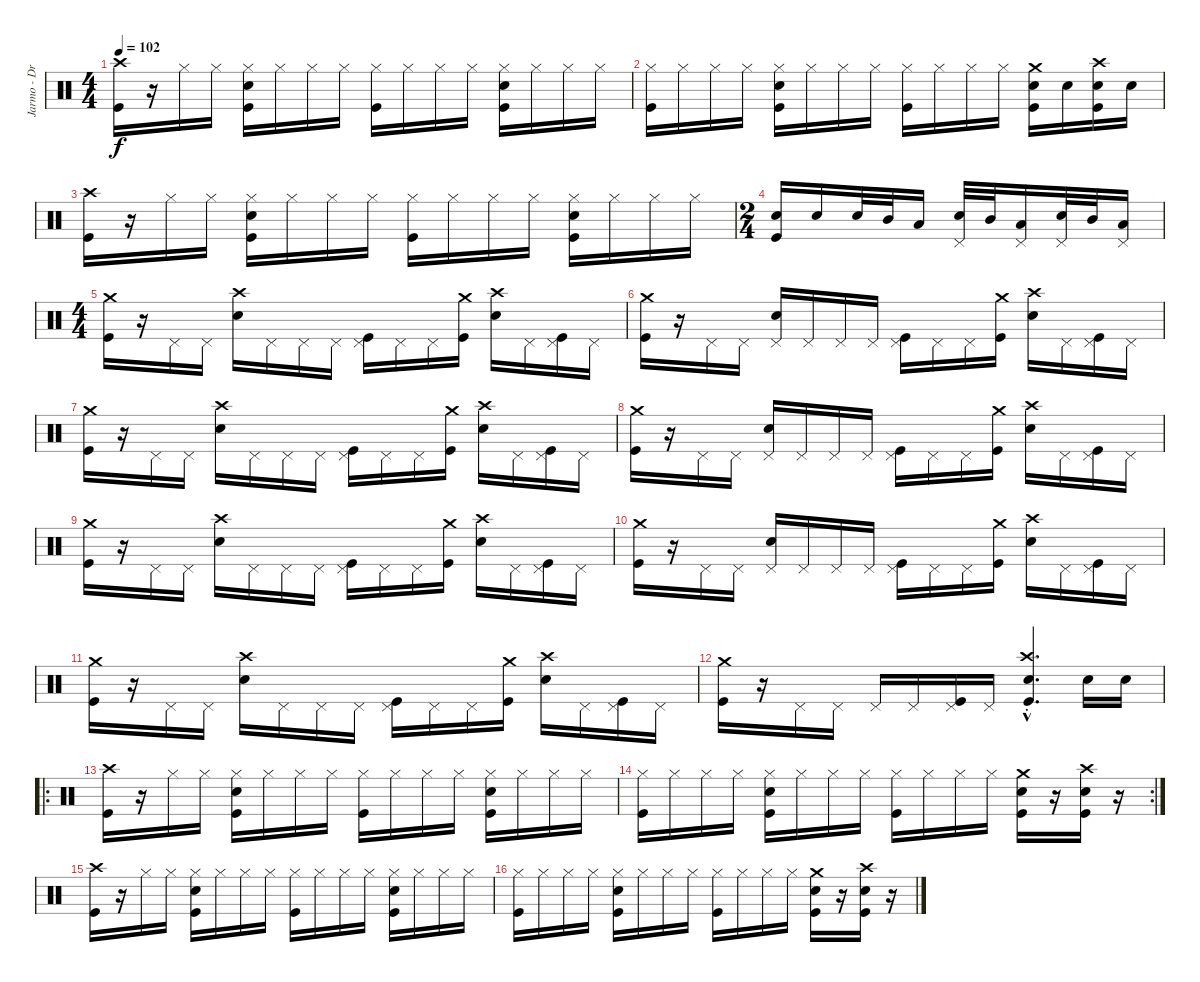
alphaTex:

\track ("Jarmo - Drums" "Jarmo - Dr") {instrument percussion}
\staff {score}
\articulation defaults
\ts (4 4)
\tempo 102
\clef neutral
\ks c
("Kick (hit)" "Crash high (hit)").16{dy f} r.16 "Hi-Hat (closed)".16 "Hi-Hat (closed)".16 ("Kick (hit)" "Electric Snare (hit)" "Hi-Hat (closed)").16 "Hi-Hat (closed)".16 "Hi-Hat (closed)".16 "Hi-Hat (closed)".16 ("Kick (hit)" "Hi-Hat (closed)").16 "Hi-Hat (closed)".16 "Hi-Hat (closed)".16 "Hi-Hat (closed)".16 ("Kick (hit)" "Electric Snare (hit)" "Hi-Hat (closed)").16 "Hi-Hat (closed)".16 "Hi-Hat (closed)".16 "Hi-Hat (closed)".16 |
("Kick (hit)" "Hi-Hat (closed)").16 "Hi-Hat (closed)".16 "Hi-Hat (closed)".16 "Hi-Hat (closed)".16 ("Kick (hit)" "Electric Snare (hit)" "Hi-Hat (closed)").16 "Hi-Hat (closed)".16 "Hi-Hat (closed)".16 "Hi-Hat (closed)".16 ("Kick (hit)" "Hi-Hat (closed)").16 "Hi-Hat (closed)".16 "Hi-Hat (closed)".16 "Hi-Hat (closed)".16 ("Kick (hit)" "Electric Snare (hit)" "Crash medium (hit)").16 "Electric Snare (hit)".16 ("Kick (hit)" "Electric Snare (hit)" "Crash high (hit)").16 "Electric Snare (hit)".16 |
("Kick (hit)" "Crash high (hit)").16 r.16 "Hi-Hat (closed)".16 "Hi-Hat (closed)".16 ("Kick (hit)" "Electric Snare (hit)" "Hi-Hat (closed)").16 "Hi-Hat (closed)".16 "Hi-Hat (closed)".16 "Hi-Hat (closed)".16 ("Kick (hit)" "Hi-Hat (closed)").16 "Hi-Hat (closed)".16 "Hi-Hat (closed)".16 "Hi-Hat (closed)".16 ("Kick (hit)" "Electric Snare (hit)" "Hi-Hat (closed)").16 "Hi-Hat (closed)".16 "Hi-Hat (closed)".16 "Hi-Hat (closed)".16 |
\ts (2 4)
("Kick (hit)" "Electric Snare (hit)").16 "Electric Snare (hit)".16 "Electric Snare (hit)".32 "Mid Tom (hit)".32 "Low Tom (hit)".16 ("Pedal Hi-Hat (hit)" "Electric Snare (hit)").32 "Mid Tom (hit)".32 ("Pedal Hi-Hat (hit)" "Low Tom (hit)").16 ("Pedal Hi-Hat (hit)" "Electric Snare (hit)").32 "Mid Tom (hit)".32 ("Pedal Hi-Hat (hit)" "Low Tom (hit)").16 |
\ts (4 4)
("Crash medium (hit)" "Kick (hit)").16 r.16 "Pedal Hi-Hat (hit)".16 "Pedal Hi-Hat (hit)".16 ("Crash high (hit)" "Electric Snare (hit)").16 "Pedal Hi-Hat (hit)".16 "Pedal Hi-Hat (hit)".16 "Pedal Hi-Hat (hit)".16 ("Pedal Hi-Hat (hit)" "Kick (hit)").16 "Pedal Hi-Hat (hit)".16 "Pedal Hi-Hat (hit)".16 ("Crash medium (hit)" "Kick (hit)").16 ("Crash high (hit)" "Electric Snare (hit)").16 "Pedal Hi-Hat (hit)".16 ("Pedal Hi-Hat (hit)" "Kick (hit)").16 "Pedal Hi-Hat (hit)".16 |
("Crash medium (hit)" "Kick (hit)").16 r.16 "Pedal Hi-Hat (hit)".16 "Pedal Hi-Hat (hit)".16 ("Pedal Hi-Hat (hit)" "Electric Snare (hit)").16 "Pedal Hi-Hat (hit)".16 "Pedal Hi-Hat (hit)".16 "Pedal Hi-Hat (hit)".16 ("Pedal Hi-Hat (hit)" "Kick (hit)").16 "Pedal Hi-Hat (hit)".16 "Pedal Hi-Hat (hit)".16 ("Crash medium (hit)" "Kick (hit)").16 ("Crash high (hit)" "Electric Snare (hit)").16 "Pedal Hi-Hat (hit)".16 ("Pedal Hi-Hat (hit)" "Kick (hit)").16 "Pedal Hi-Hat (hit)".16 |
("Crash medium (hit)" "Kick (hit)").16 r.16 "Pedal Hi-Hat (hit)".16 "Pedal Hi-Hat (hit)".16 ("Crash high (hit)" "Electric Snare (hit)").16 "Pedal Hi-Hat (hit)".16 "Pedal Hi-Hat (hit)".16 "Pedal Hi-Hat (hit)".16 ("Pedal Hi-Hat (hit)" "Kick (hit)").16 "Pedal Hi-Hat (hit)".16 "Pedal Hi-Hat (hit)".16 ("Crash medium (hit)" "Kick (hit)").16 ("Crash high (hit)" "Electric Snare (hit)").16 "Pedal Hi-Hat (hit)".16 ("Pedal Hi-Hat (hit)" "Kick (hit)").16 "Pedal Hi-Hat (hit)".16 |
("Crash medium (hit)" "Kick (hit)").16 r.16 "Pedal Hi-Hat (hit)".16 "Pedal Hi-Hat (hit)".16 ("Pedal Hi-Hat (hit)" "Electric Snare (hit)").16 "Pedal Hi-Hat (hit)".16 "Pedal Hi-Hat (hit)".16 "Pedal Hi-Hat (hit)".16 ("Pedal Hi-Hat (hit)" "Kick (hit)").16 "Pedal Hi-Hat (hit)".16 "Pedal Hi-Hat (hit)".16 ("Crash medium (hit)" "Kick (hit)").16 ("Crash high (hit)" "Electric Snare (hit)").16 "Pedal Hi-Hat (hit)".16 ("Pedal Hi-Hat (hit)" "Kick (hit)").16 "Pedal Hi-Hat (hit)".16 |
("Crash medium (hit)" "Kick (hit)").16 r.16 "Pedal Hi-Hat (hit)".16 "Pedal Hi-Hat (hit)".16 ("Crash high (hit)" "Electric Snare (hit)").16 "Pedal Hi-Hat (hit)".16 "Pedal Hi-Hat (hit)".16 "Pedal Hi-Hat (hit)".16 ("Pedal Hi-Hat (hit)" "Kick (hit)").16 "Pedal Hi-Hat (hit)".16 "Pedal Hi-Hat (hit)".16 ("Crash medium (hit)" "Kick (hit)").16 ("Crash high (hit)" "Electric Snare (hit)").16 "Pedal Hi-Hat (hit)".16 ("Pedal Hi-Hat (hit)" "Kick (hit)").16 "Pedal Hi-Hat (hit)".16 |
("Crash medium (hit)" "Kick (hit)").16 r.16 "Pedal Hi-Hat (hit)".16 "Pedal Hi-Hat (hit)".16 ("Pedal Hi-Hat (hit)" "Electric Snare (hit)").16 "Pedal Hi-Hat (hit)".16 "Pedal Hi-Hat (hit)".16 "Pedal Hi-Hat (hit)".16 ("Pedal Hi-Hat (hit)" "Kick (hit)").16 "Pedal Hi-Hat (hit)".16 "Pedal Hi-Hat (hit)".16 ("Crash medium (hit)" "Kick (hit)").16 ("Crash high (hit)" "Electric Snare (hit)").16 "Pedal Hi-Hat (hit)".16 ("Pedal Hi-Hat (hit)" "Kick (hit)").16 "Pedal Hi-Hat (hit)".16 |
("Crash medium (hit)" "Kick (hit)").16 r.16 "Pedal Hi-Hat (hit)".16 "Pedal Hi-Hat (hit)".16 ("Crash high (hit)" "Electric Snare (hit)").16 "Pedal Hi-Hat (hit)".16 "Pedal Hi-Hat (hit)".16 "Pedal Hi-Hat (hit)".16 ("Pedal Hi-Hat (hit)" "Kick (hit)").16 "Pedal Hi-Hat (hit)".16 "Pedal Hi-Hat (hit)".16 ("Crash medium (hit)" "Kick (hit)").16 ("Crash high (hit)" "Electric Snare (hit)").16 "Pedal Hi-Hat (hit)".16 ("Pedal Hi-Hat (hit)" "Kick (hit)").16 "Pedal Hi-Hat (hit)".16 |
("Crash medium (hit)" "Kick (hit)").16 r.16 "Pedal Hi-Hat (hit)".16 "Pedal Hi-Hat (hit)".16 "Pedal Hi-Hat (hit)".16 "Pedal Hi-Hat (hit)".16 ("Pedal Hi-Hat (hit)" "Kick (hit)").16 "Pedal Hi-Hat (hit)".16 ("Crash high (hit)"{hac st} "Electric Snare (hit)"{hac} "Kick (hit)"{hac}).4{d} "Electric Snare (hit)".16 "Electric Snare (hit)".16 |
\ro
("Kick (hit)" "Crash high (hit)").16 r.16 "Hi-Hat (closed)".16 "Hi-Hat (closed)".16 ("Kick (hit)" "Electric Snare (hit)" "Hi-Hat (closed)").16 "Hi-Hat (closed)".16 "Hi-Hat (closed)".16 "Hi-Hat (closed)".16 ("Kick (hit)" "Hi-Hat (closed)").16 "Hi-Hat (closed)".16 "Hi-Hat (closed)".16 "Hi-Hat (closed)".16 ("Kick (hit)" "Electric Snare (hit)" "Hi-Hat (closed)").16 "Hi-Hat (closed)".16 "Hi-Hat (closed)".16 "Hi-Hat (closed)".16 |
\rc 2
("Kick (hit)" "Hi-Hat (closed)").16 "Hi-Hat (closed)".16 "Hi-Hat (closed)".16 "Hi-Hat (closed)".16 ("Kick (hit)" "Electric Snare (hit)" "Hi-Hat (closed)").16 "Hi-Hat (closed)".16 "Hi-Hat (closed)".16 "Hi-Hat (closed)".16 ("Kick (hit)" "Hi-Hat (closed)").16 "Hi-Hat (closed)".16 "Hi-Hat (closed)".16 "Hi-Hat (closed)".16 ("Kick (hit)" "Electric Snare (hit)" "Crash medium (hit)").16 r.16 ("Kick (hit)" "Electric Snare (hit)" "Crash high (hit)").16 r.16 |
("Kick (hit)" "Crash high (hit)").16 r.16 "Hi-Hat (closed)".16 "Hi-Hat (closed)".16 ("Kick (hit)" "Electric Snare (hit)" "Hi-Hat (closed)").16 "Hi-Hat (closed)".16 "Hi-Hat (closed)".16 "Hi-Hat (closed)".16 ("Kick (hit)" "Hi-Hat (closed)").16 "Hi-Hat (closed)".16 "Hi-Hat (closed)".16 "Hi-Hat (closed)".16 ("Kick (hit)" "Electric Snare (hit)" "Hi-Hat (closed)").16 "Hi-Hat (closed)".16 "Hi-Hat (closed)".16 "Hi-Hat (closed)".16 |
("Kick (hit)" "Hi-Hat (closed)").16 "Hi-Hat (closed)".16 "Hi-Hat (closed)".16 "Hi-Hat (closed)".16 ("Kick (hit)" "Electric Snare (hit)" "Hi-Hat (closed)").16 "Hi-Hat (closed)".16 "Hi-Hat (closed)".16 "Hi-Hat (closed)".16 ("Kick (hit)" "Hi-Hat (closed)").16 "Hi-Hat (closed)".16 "Hi-Hat (closed)".16 "Hi-Hat (closed)".16 ("Kick (hit)" "Electric Snare (hit)" "Crash medium (hit)").16 r.16 ("Kick (hit)" "Electric Snare (hit)" "Crash high (hit)").16 r.16
